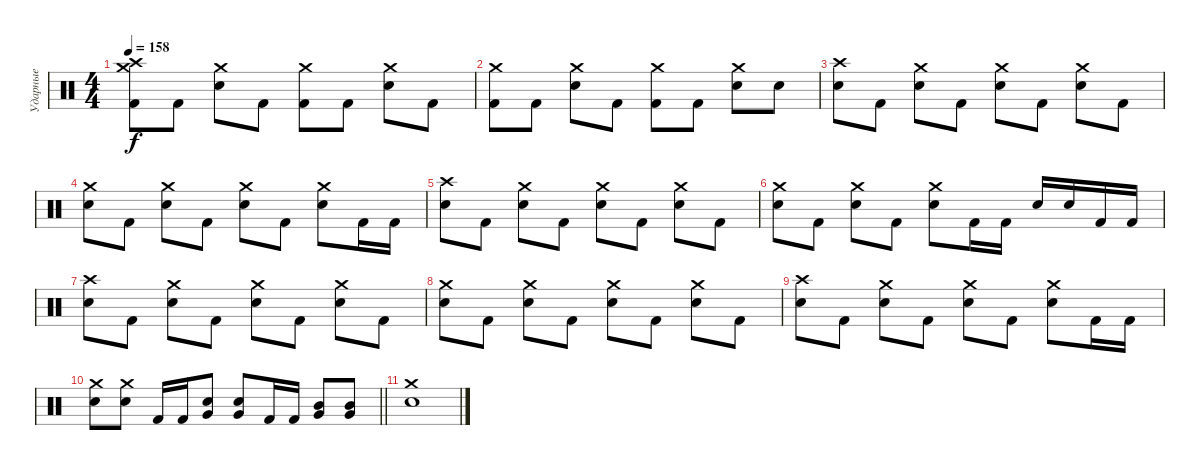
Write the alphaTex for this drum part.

\track ("Ударные" "Ударные") {instrument percussion}
\staff {score}
\articulation defaults
\ts (4 4)
\tempo 158
\clef neutral
\ks c
("Crash medium (hit)" "Crash high (hit)" "Kick (hit) 2").8{dy f} "Kick (hit) 2".8 ("Crash medium (hit)" "Electric Snare (hit)").8 "Kick (hit) 2".8 ("Crash medium (hit)" "Kick (hit) 2").8 "Kick (hit) 2".8 ("Crash medium (hit)" "Electric Snare (hit)").8 "Kick (hit) 2".8 |
("Crash medium (hit)" "Kick (hit) 2").8 "Kick (hit) 2".8 ("Crash medium (hit)" "Electric Snare (hit)").8 "Kick (hit) 2".8 ("Crash medium (hit)" "Kick (hit) 2").8 "Kick (hit) 2".8 ("Crash medium (hit)" "Electric Snare (hit)").8 "Electric Snare (hit)".8 |
("Crash high (hit)" "Electric Snare (hit)").8 "Kick (hit) 2".8 ("Crash medium (hit)" "Electric Snare (hit)").8 "Kick (hit) 2".8 ("Crash medium (hit)" "Electric Snare (hit)").8 "Kick (hit) 2".8 ("Crash medium (hit)" "Electric Snare (hit)").8 "Kick (hit) 2".8 |
("Crash medium (hit)" "Electric Snare (hit)").8 "Kick (hit) 2".8 ("Crash medium (hit)" "Electric Snare (hit)").8 "Kick (hit) 2".8 ("Crash medium (hit)" "Electric Snare (hit)").8 "Kick (hit) 2".8 ("Crash medium (hit)" "Electric Snare (hit)").8 "Kick (hit) 2".16 "Kick (hit) 2".16 |
("Crash high (hit)" "Electric Snare (hit)").8 "Kick (hit) 2".8 ("Crash medium (hit)" "Electric Snare (hit)").8 "Kick (hit) 2".8 ("Crash medium (hit)" "Electric Snare (hit)").8 "Kick (hit) 2".8 ("Crash medium (hit)" "Electric Snare (hit)").8 "Kick (hit) 2".8 |
("Crash medium (hit)" "Electric Snare (hit)").8 "Kick (hit) 2".8 ("Crash medium (hit)" "Electric Snare (hit)").8 "Kick (hit) 2".8 ("Crash medium (hit)" "Electric Snare (hit)").8 "Kick (hit) 2".16 "Kick (hit) 2".16 "Electric Snare (hit)".16 "Electric Snare (hit)".16 "Kick (hit) 2".16 "Kick (hit) 2".16 |
("Crash high (hit)" "Electric Snare (hit)").8 "Kick (hit) 2".8 ("Crash medium (hit)" "Electric Snare (hit)").8 "Kick (hit) 2".8 ("Crash medium (hit)" "Electric Snare (hit)").8 "Kick (hit) 2".8 ("Crash medium (hit)" "Electric Snare (hit)").8 "Kick (hit) 2".8 |
("Crash medium (hit)" "Electric Snare (hit)").8 "Kick (hit) 2".8 ("Crash medium (hit)" "Electric Snare (hit)").8 "Kick (hit) 2".8 ("Crash medium (hit)" "Electric Snare (hit)").8 "Kick (hit) 2".8 ("Crash medium (hit)" "Electric Snare (hit)").8 "Kick (hit) 2".8 |
("Crash high (hit)" "Electric Snare (hit)").8 "Kick (hit) 2".8 ("Crash medium (hit)" "Electric Snare (hit)").8 "Kick (hit) 2".8 ("Crash medium (hit)" "Electric Snare (hit)").8 "Kick (hit) 2".8 ("Crash medium (hit)" "Electric Snare (hit)").8 "Kick (hit) 2".16 "Kick (hit) 2".16 |
\barLineRight lightlight
("Crash medium (hit)" "Electric Snare (hit)").8 ("Crash medium (hit)" "Electric Snare (hit)").8 "Kick (hit) 2".16 "Kick (hit) 2".16 ("Electric Snare (hit)" "Very Low Tom (hit)").8 ("Electric Snare (hit)" "Very Low Tom (hit)").8 "Kick (hit) 2".16 "Kick (hit) 2".16 ("Mid Tom (hit)" "Very Low Tom (hit)").8 ("Mid Tom (hit)" "Very Low Tom (hit)").8 |
("Crash medium (hit)" "Electric Snare (hit)").1
